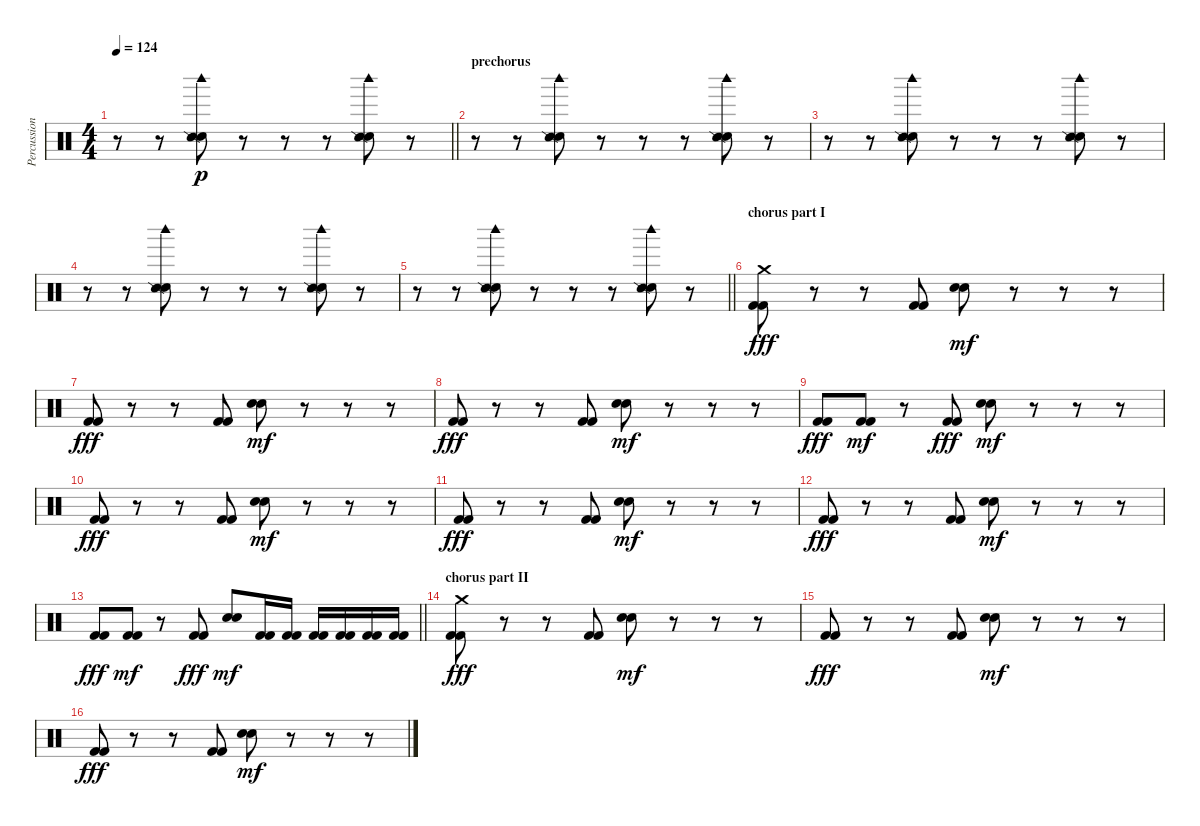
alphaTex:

\track ("Percussions" "Percussion") {instrument percussion}
\staff {score}
\articulation defaults
\ts (4 4)
\tempo 124
\clef neutral
\barLineRight lightlight
\ks c
r.8{dy p} r.8 ("Snare (hit) 2" "Snare (side stick) 2" "Woodblock high (hit)").8 r.8 r.8 r.8 ("Snare (hit) 2" "Snare (side stick) 2" "Woodblock high (hit)").8 r.8 |
\section ("" "prechorus")
r.8 r.8 ("Snare (hit) 2" "Snare (side stick) 2" "Woodblock high (hit)").8 r.8 r.8 r.8 ("Snare (hit) 2" "Snare (side stick) 2" "Woodblock high (hit)").8 r.8 |
r.8 r.8 ("Snare (hit) 2" "Snare (side stick) 2" "Woodblock high (hit)").8 r.8 r.8 r.8 ("Snare (hit) 2" "Snare (side stick) 2" "Woodblock high (hit)").8 r.8 |
r.8 r.8 ("Snare (hit) 2" "Snare (side stick) 2" "Woodblock high (hit)").8 r.8 r.8 r.8 ("Snare (hit) 2" "Snare (side stick) 2" "Woodblock high (hit)").8 r.8 |
\barLineRight lightlight
r.8 r.8 ("Snare (hit) 2" "Snare (side stick) 2" "Woodblock high (hit)").8 r.8 r.8 r.8 ("Snare (hit) 2" "Snare (side stick) 2" "Woodblock high (hit)").8 r.8 |
\section ("" "chorus part I")
("Crash medium (hit)" "Kick (hit) 2" "Kick (hit) 2").8{dy fff} r.8 r.8 ("Kick (hit) 2" "Kick (hit) 2").8 ("Hand Clap (hit)" "Electric Snare (hit)").8{dy mf} r.8 r.8 r.8 |
("Kick (hit) 2" "Kick (hit) 2").8{dy fff} r.8 r.8 ("Kick (hit) 2" "Kick (hit) 2").8 ("Hand Clap (hit)" "Electric Snare (hit)").8{dy mf} r.8 r.8 r.8 |
("Kick (hit) 2" "Kick (hit) 2").8{dy fff} r.8 r.8 ("Kick (hit) 2" "Kick (hit) 2").8 ("Hand Clap (hit)" "Electric Snare (hit)").8{dy mf} r.8 r.8 r.8 |
("Kick (hit) 2" "Kick (hit) 2").8{dy fff} ("Kick (hit) 2" "Kick (hit) 2").8{dy mf} r.8 ("Kick (hit) 2" "Kick (hit) 2").8{dy fff} ("Hand Clap (hit)" "Electric Snare (hit)").8{dy mf} r.8 r.8 r.8 |
("Kick (hit) 2" "Kick (hit) 2").8{dy fff} r.8 r.8 ("Kick (hit) 2" "Kick (hit) 2").8 ("Hand Clap (hit)" "Electric Snare (hit)").8{dy mf} r.8 r.8 r.8 |
("Kick (hit) 2" "Kick (hit) 2").8{dy fff} r.8 r.8 ("Kick (hit) 2" "Kick (hit) 2").8 ("Hand Clap (hit)" "Electric Snare (hit)").8{dy mf} r.8 r.8 r.8 |
("Kick (hit) 2" "Kick (hit) 2").8{dy fff} r.8 r.8 ("Kick (hit) 2" "Kick (hit) 2").8 ("Hand Clap (hit)" "Electric Snare (hit)").8{dy mf} r.8 r.8 r.8 |
\barLineRight lightlight
("Kick (hit) 2" "Kick (hit) 2").8{dy fff} ("Kick (hit) 2" "Kick (hit) 2").8{dy mf} r.8 ("Kick (hit) 2" "Kick (hit) 2").8{dy fff} ("Hand Clap (hit)" "Electric Snare (hit)").8{dy mf} ("Kick (hit) 2" "Kick (hit) 2").16 ("Kick (hit) 2" "Kick (hit) 2").16 ("Kick (hit) 2" "Kick (hit) 2").16 ("Kick (hit) 2" "Kick (hit) 2").16 ("Kick (hit) 2" "Kick (hit) 2").16 ("Kick (hit) 2" "Kick (hit) 2").16 |
\section ("" "chorus part II")
("Crash medium (hit)" "Kick (hit) 2" "Kick (hit) 2").8{dy fff} r.8 r.8 ("Kick (hit) 2" "Kick (hit) 2").8 ("Hand Clap (hit)" "Electric Snare (hit)").8{dy mf} r.8 r.8 r.8 |
("Kick (hit) 2" "Kick (hit) 2").8{dy fff} r.8 r.8 ("Kick (hit) 2" "Kick (hit) 2").8 ("Hand Clap (hit)" "Electric Snare (hit)").8{dy mf} r.8 r.8 r.8 |
("Kick (hit) 2" "Kick (hit) 2").8{dy fff} r.8 r.8 ("Kick (hit) 2" "Kick (hit) 2").8 ("Hand Clap (hit)" "Electric Snare (hit)").8{dy mf} r.8 r.8 r.8
